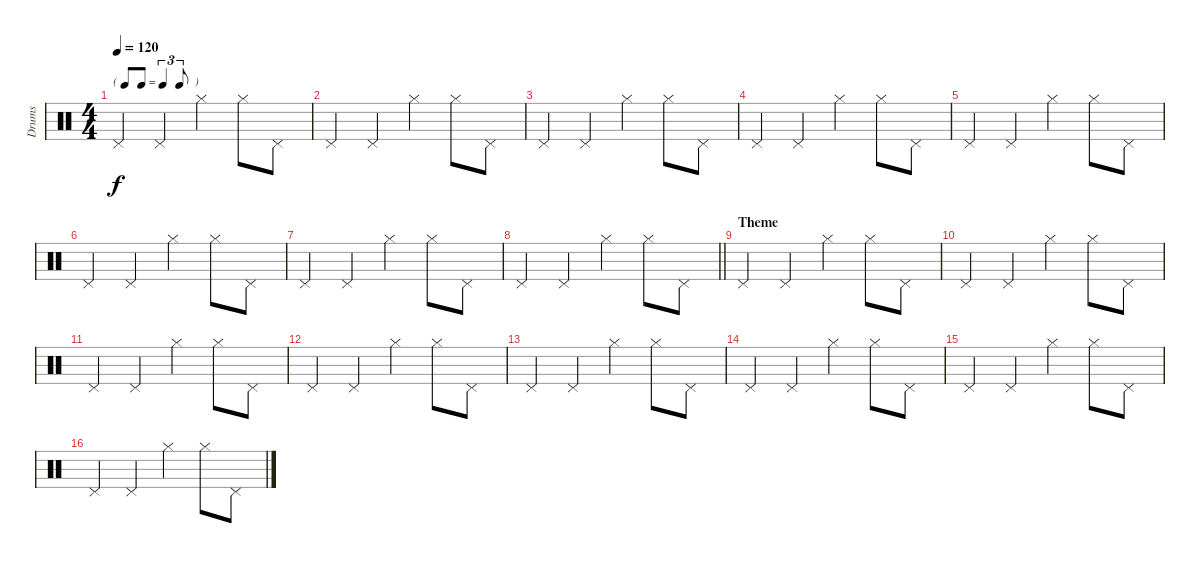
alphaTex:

\track ("Drums" "Drums") {instrument percussion}
\staff {score}
\articulation defaults
\ts (4 4)
\tf triplet8th
\tempo 120
\clef neutral
\ks c "Pedal Hi-Hat (hit)".4{dy f} "Pedal Hi-Hat (hit)".4 "Hi-Hat (closed)".4 "Hi-Hat (closed)".8 "Pedal Hi-Hat (hit)".8
|
"Pedal Hi-Hat (hit)".4 "Pedal Hi-Hat (hit)".4 "Hi-Hat (closed)".4 "Hi-Hat (closed)".8 "Pedal Hi-Hat (hit)".8 |
"Pedal Hi-Hat (hit)".4 "Pedal Hi-Hat (hit)".4 "Hi-Hat (closed)".4 "Hi-Hat (closed)".8 "Pedal Hi-Hat (hit)".8 |
"Pedal Hi-Hat (hit)".4 "Pedal Hi-Hat (hit)".4 "Hi-Hat (closed)".4 "Hi-Hat (closed)".8 "Pedal Hi-Hat (hit)".8 |
"Pedal Hi-Hat (hit)".4 "Pedal Hi-Hat (hit)".4 "Hi-Hat (closed)".4 "Hi-Hat (closed)".8 "Pedal Hi-Hat (hit)".8 |
"Pedal Hi-Hat (hit)".4 "Pedal Hi-Hat (hit)".4 "Hi-Hat (closed)".4 "Hi-Hat (closed)".8 "Pedal Hi-Hat (hit)".8 |
"Pedal Hi-Hat (hit)".4 "Pedal Hi-Hat (hit)".4 "Hi-Hat (closed)".4 "Hi-Hat (closed)".8 "Pedal Hi-Hat (hit)".8 |
\barLineRight lightlight "Pedal Hi-Hat (hit)".4 "Pedal Hi-Hat (hit)".4 "Hi-Hat (closed)".4 "Hi-Hat (closed)".8 "Pedal Hi-Hat (hit)".8
|
\section ("" "Theme")
"Pedal Hi-Hat (hit)".4 "Pedal Hi-Hat (hit)".4 "Hi-Hat (closed)".4 "Hi-Hat (closed)".8 "Pedal Hi-Hat (hit)".8 |
"Pedal Hi-Hat (hit)".4 "Pedal Hi-Hat (hit)".4 "Hi-Hat (closed)".4 "Hi-Hat (closed)".8 "Pedal Hi-Hat (hit)".8 |
"Pedal Hi-Hat (hit)".4 "Pedal Hi-Hat (hit)".4 "Hi-Hat (closed)".4 "Hi-Hat (closed)".8 "Pedal Hi-Hat (hit)".8 |
"Pedal Hi-Hat (hit)".4 "Pedal Hi-Hat (hit)".4 "Hi-Hat (closed)".4 "Hi-Hat (closed)".8 "Pedal Hi-Hat (hit)".8 |
"Pedal Hi-Hat (hit)".4 "Pedal Hi-Hat (hit)".4 "Hi-Hat (closed)".4 "Hi-Hat (closed)".8 "Pedal Hi-Hat (hit)".8 |
"Pedal Hi-Hat (hit)".4 "Pedal Hi-Hat (hit)".4 "Hi-Hat (closed)".4 "Hi-Hat (closed)".8 "Pedal Hi-Hat (hit)".8 |
"Pedal Hi-Hat (hit)".4 "Pedal Hi-Hat (hit)".4 "Hi-Hat (closed)".4 "Hi-Hat (closed)".8 "Pedal Hi-Hat (hit)".8 |
"Pedal Hi-Hat (hit)".4 "Pedal Hi-Hat (hit)".4 "Hi-Hat (closed)".4 "Hi-Hat (closed)".8 "Pedal Hi-Hat (hit)".8
